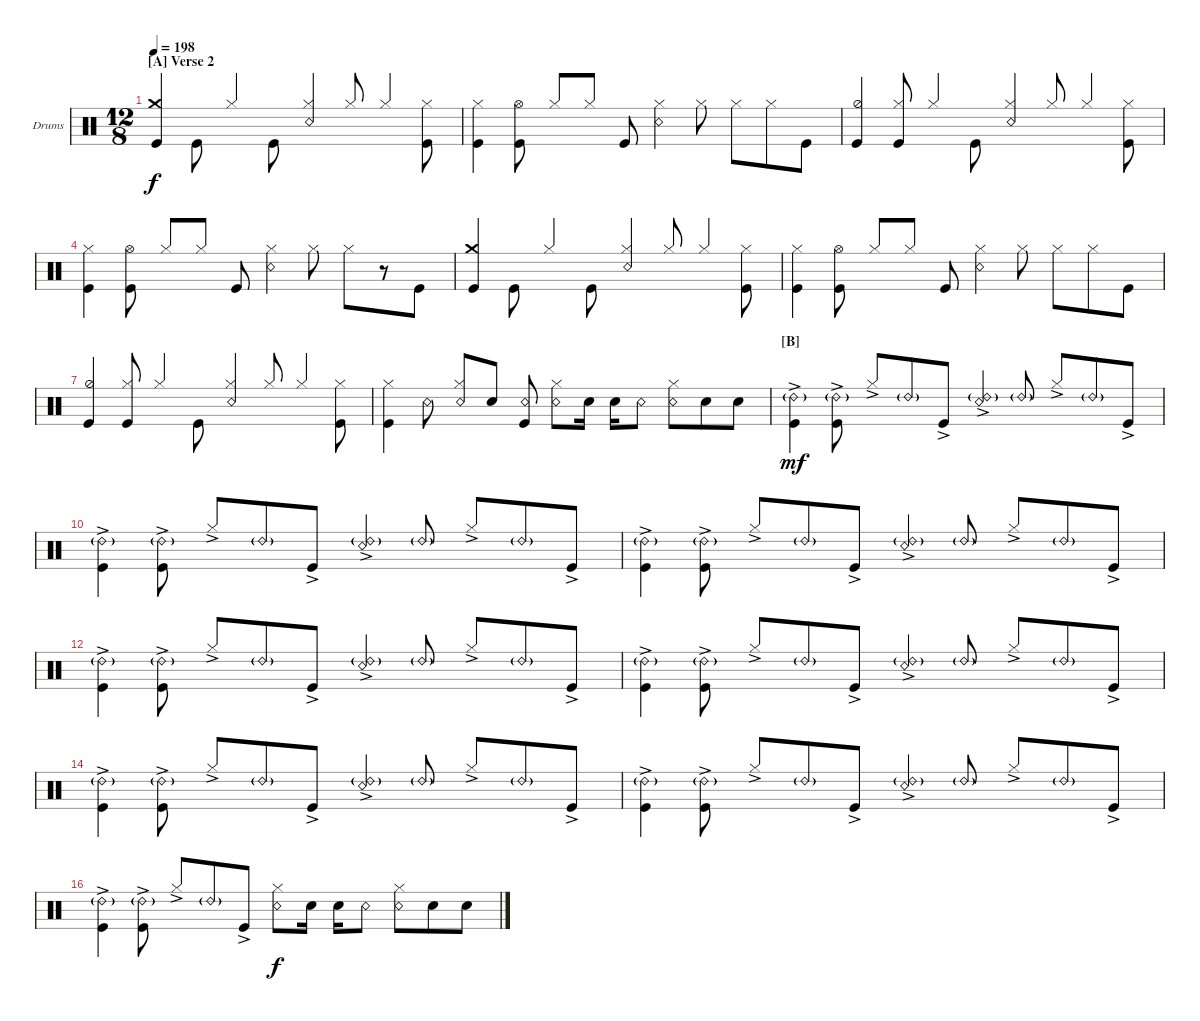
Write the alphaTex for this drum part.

\bracketExtendMode nobrackets
\firstSystemTrackNameOrientation horizontal
\otherSystemsTrackNameOrientation horizontal
\defaultBarNumberDisplay FirstOfSystem
\track ("Drumkit" "Drums") {instrument percussion}
\staff {score}
\articulation defaults
\ts (12 8)
\section ("A" "Verse 2")
\tempo 198
\clef neutral
\scale
0.237374
\ks c
("Kick (hit)" "Crash medium (hit)").4{dy f beam invert} "Kick (hit)".8{beam invert} "Hi-Hat (closed)".4 "Kick (hit)".8{beam invert} ("Snare (rim shot)" "Hi-Hat (closed)").4 "Hi-Hat (closed)".8{beam invert} "Hi-Hat (closed)".4{beam invert} ("Kick (hit)" "Hi-Hat (closed)").8 |
\scale
0.262626 ("Kick (hit)" "Hi-Hat (closed)").4 ("Kick (hit)" "Hi-Hat (open)").8{beam split} "Hi-Hat (closed)".8 "Hi-Hat (closed)".8{beam invert beam split} "Kick (hit)".8 ("Snare (rim shot)" "Hi-Hat (closed)").4 "Hi-Hat (closed)".8{beam split} "Hi-Hat (closed)".8 "Hi-Hat (closed)".8 "Kick (hit)".8 |
\scale
0.237374 ("Kick (hit)" "Hi-Hat (half)").4{beam invert} ("Kick (hit)" "Hi-Hat (closed)").8{beam invert} "Hi-Hat (closed)".4 "Kick (hit)".8{beam invert} ("Snare (rim shot)" "Hi-Hat (closed)").4 "Hi-Hat (closed)".8{beam invert} "Hi-Hat (closed)".4{beam invert} ("Kick (hit)" "Hi-Hat (closed)").8 |
\scale
0.262626 ("Kick (hit)" "Hi-Hat (closed)").4 ("Kick (hit)" "Hi-Hat (open)").8{beam split} "Hi-Hat (closed)".8 "Hi-Hat (closed)".8{beam invert beam split} "Kick (hit)".8 ("Snare (rim shot)" "Hi-Hat (closed)").4 "Hi-Hat (closed)".8{beam split} "Hi-Hat (closed)".8 r.8 "Kick (hit)".8 |
\scale
0.22515 ("Kick (hit)" "Crash medium (hit)").4{beam invert} "Kick (hit)".8{beam invert} "Hi-Hat (closed)".4 "Kick (hit)".8{beam invert} ("Snare (rim shot)" "Hi-Hat (closed)").4 "Hi-Hat (closed)".8{beam invert} "Hi-Hat (closed)".4{beam invert} ("Kick (hit)" "Hi-Hat (closed)").8 |
\scale
0.249102 ("Kick (hit)" "Hi-Hat (closed)").4 ("Kick (hit)" "Hi-Hat (open)").8{beam split} "Hi-Hat (closed)".8 "Hi-Hat (closed)".8{beam invert beam split} "Kick (hit)".8 ("Snare (rim shot)" "Hi-Hat (closed)").4 "Hi-Hat (closed)".8{beam split} "Hi-Hat (closed)".8 "Hi-Hat (closed)".8 "Kick (hit)".8 |
\scale
0.22515 ("Kick (hit)" "Hi-Hat (half)").4{beam invert} ("Kick (hit)" "Hi-Hat (closed)").8{beam invert} "Hi-Hat (closed)".4 "Kick (hit)".8{beam invert} ("Snare (rim shot)" "Hi-Hat (closed)").4 "Hi-Hat (closed)".8{beam invert} "Hi-Hat (closed)".4{beam invert} ("Kick (hit)" "Hi-Hat (closed)").8 |
\scale
0.300599 ("Kick (hit)" "Hi-Hat (closed)").4 "Snare (rim shot)".8{beam split} ("Hi-Hat (closed)" "Snare (rim shot)").8 "Snare (hit) 2".8{beam invert beam split} ("Kick (hit)" "Snare (rim shot)").8 ("Snare (rim shot)" "Hi-Hat (closed)").8 "Snare (hit) 2".16{beam split} "Snare (hit) 2".16 "Snare (rim shot)".8 ("Snare (rim shot)" "Hi-Hat (closed)").8 "Snare (hit) 2".8 "Snare (hit) 2".8 |
\section ("B" "")
\scale
0.25 ("Kick (hit)"{ac} "Ride (bell) 2"{g}).4{dy mf beam invert} ("Kick (hit)"{ac} "Ride (bell) 2"{g}).8{beam invert} "Hi-Hat (closed)"{ac}.8 "Ride (bell) 2"{g}.8 "Kick (hit)"{ac}.8{beam invert} ("Snare (rim shot)"{ac} "Ride (bell) 2"{g}).4 "Ride (bell) 2"{g}.8{beam invert} "Hi-Hat (closed)"{ac}.8{beam invert} "Ride (bell) 2"{g}.8 "Kick (hit)"{ac}.8 |
\scale
0.25 ("Kick (hit)"{ac} "Ride (bell) 2"{g}).4{beam invert} ("Kick (hit)"{ac} "Ride (bell) 2"{g}).8{beam invert} "Hi-Hat (closed)"{ac}.8 "Ride (bell) 2"{g}.8 "Kick (hit)"{ac}.8{beam invert} ("Snare (rim shot)"{ac} "Ride (bell) 2"{g}).4 "Ride (bell) 2"{g}.8{beam invert} "Hi-Hat (closed)"{ac}.8{beam invert} "Ride (bell) 2"{g}.8 "Kick (hit)"{ac}.8 |
\scale
0.25 ("Kick (hit)"{ac} "Ride (bell) 2"{g}).4{beam invert} ("Kick (hit)"{ac} "Ride (bell) 2"{g}).8{beam invert} "Hi-Hat (closed)"{ac}.8 "Ride (bell) 2"{g}.8 "Kick (hit)"{ac}.8{beam invert} ("Snare (rim shot)"{ac} "Ride (bell) 2"{g}).4 "Ride (bell) 2"{g}.8{beam invert} "Hi-Hat (closed)"{ac}.8{beam invert} "Ride (bell) 2"{g}.8 "Kick (hit)"{ac}.8 |
\scale
0.25 ("Kick (hit)"{ac} "Ride (bell) 2"{g}).4{beam invert} ("Kick (hit)"{ac} "Ride (bell) 2"{g}).8{beam invert} "Hi-Hat (closed)"{ac}.8 "Ride (bell) 2"{g}.8 "Kick (hit)"{ac}.8{beam invert} ("Snare (rim shot)"{ac} "Ride (bell) 2"{g}).4 "Ride (bell) 2"{g}.8{beam invert} "Hi-Hat (closed)"{ac}.8{beam invert} "Ride (bell) 2"{g}.8 "Kick (hit)"{ac}.8 |
\scale
0.25 ("Kick (hit)"{ac} "Ride (bell) 2"{g}).4{beam invert} ("Kick (hit)"{ac} "Ride (bell) 2"{g}).8{beam invert} "Hi-Hat (closed)"{ac}.8 "Ride (bell) 2"{g}.8 "Kick (hit)"{ac}.8{beam invert} ("Snare (rim shot)"{ac} "Ride (bell) 2"{g}).4 "Ride (bell) 2"{g}.8{beam invert} "Hi-Hat (closed)"{ac}.8{beam invert} "Ride (bell) 2"{g}.8 "Kick (hit)"{ac}.8 |
\scale
0.25 ("Kick (hit)"{ac} "Ride (bell) 2"{g}).4{beam invert} ("Kick (hit)"{ac} "Ride (bell) 2"{g}).8{beam invert} "Hi-Hat (closed)"{ac}.8 "Ride (bell) 2"{g}.8 "Kick (hit)"{ac}.8{beam invert} ("Snare (rim shot)"{ac} "Ride (bell) 2"{g}).4 "Ride (bell) 2"{g}.8{beam invert} "Hi-Hat (closed)"{ac}.8{beam invert} "Ride (bell) 2"{g}.8 "Kick (hit)"{ac}.8 |
\scale
0.25 ("Kick (hit)"{ac} "Ride (bell) 2"{g}).4{beam invert} ("Kick (hit)"{ac} "Ride (bell) 2"{g}).8{beam invert} "Hi-Hat (closed)"{ac}.8 "Ride (bell) 2"{g}.8 "Kick (hit)"{ac}.8{beam invert} ("Snare (rim shot)"{ac} "Ride (bell) 2"{g}).4 "Ride (bell) 2"{g}.8{beam invert} "Hi-Hat (closed)"{ac}.8{beam invert} "Ride (bell) 2"{g}.8 "Kick (hit)"{ac}.8 |
\scale
0.25 ("Kick (hit)"{ac} "Ride (bell) 2"{g}).4{beam invert} ("Kick (hit)"{ac} "Ride (bell) 2"{g}).8{beam invert} "Hi-Hat (closed)"{ac}.8 "Ride (bell) 2"{g}.8 "Kick (hit)"{ac}.8{beam invert} ("Snare (rim shot)" "Hi-Hat (closed)").8{dy f} "Snare (hit) 2".16{beam split} "Snare (hit) 2".16 "Snare (rim shot)".8 ("Snare (rim shot)" "Hi-Hat (closed)").8 "Snare (hit) 2".8 "Snare (hit) 2".8
